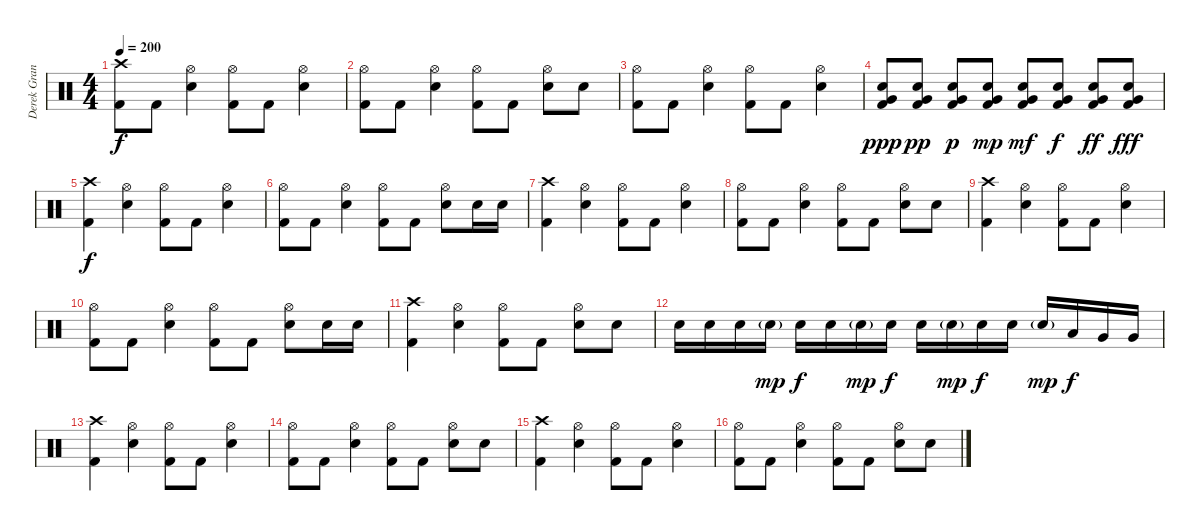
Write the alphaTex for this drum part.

\track ("Derek Grant" "Derek Gran") {instrument percussion}
\staff {score}
\articulation defaults
\ts (4 4)
\tempo 200
\clef neutral
\ks c
("Crash high (hit)" "Kick (hit) 2").8{dy f} "Kick (hit) 2".8 ("Hi-Hat (open)" "Electric Snare (hit)").4 ("Hi-Hat (open)" "Kick (hit) 2").8 "Kick (hit) 2".8 ("Hi-Hat (open)" "Electric Snare (hit)").4 |
("Hi-Hat (open)" "Kick (hit) 2").8 "Kick (hit) 2".8 ("Hi-Hat (open)" "Electric Snare (hit)").4 ("Hi-Hat (open)" "Kick (hit) 2").8 "Kick (hit) 2".8 ("Hi-Hat (open)" "Electric Snare (hit)").8 "Electric Snare (hit)".8 |
("Hi-Hat (open)" "Kick (hit) 2").8 "Kick (hit) 2".8 ("Hi-Hat (open)" "Electric Snare (hit)").4 ("Hi-Hat (open)" "Kick (hit) 2").8 "Kick (hit) 2".8 ("Hi-Hat (open)" "Electric Snare (hit)").4 |
("Very Low Tom (hit)" "Electric Snare (hit)" "Kick (hit) 2").8{dy ppp} ("Very Low Tom (hit)" "Electric Snare (hit)" "Kick (hit) 2").8{dy pp} ("Very Low Tom (hit)" "Electric Snare (hit)" "Kick (hit) 2").8{dy p} ("Very Low Tom (hit)" "Electric Snare (hit)" "Kick (hit) 2").8{dy mp} ("Very Low Tom (hit)" "Electric Snare (hit)" "Kick (hit) 2").8{dy mf} ("Very Low Tom (hit)" "Electric Snare (hit)" "Kick (hit) 2").8{dy f} ("Very Low Tom (hit)" "Electric Snare (hit)" "Kick (hit) 2").8{dy ff} ("Very Low Tom (hit)" "Electric Snare (hit)" "Kick (hit) 2").8{dy fff} |
("Crash high (hit)" "Kick (hit) 2").4{dy f} ("Hi-Hat (open)" "Electric Snare (hit)").4 ("Hi-Hat (open)" "Kick (hit) 2").8 "Kick (hit) 2".8 ("Hi-Hat (open)" "Electric Snare (hit)").4 |
("Hi-Hat (open)" "Kick (hit) 2").8 "Kick (hit) 2".8 ("Hi-Hat (open)" "Electric Snare (hit)").4 ("Hi-Hat (open)" "Kick (hit) 2").8 "Kick (hit) 2".8 ("Hi-Hat (open)" "Electric Snare (hit)").8 "Electric Snare (hit)".16 "Electric Snare (hit)".16 |
("Crash high (hit)" "Kick (hit) 2").4 ("Hi-Hat (open)" "Electric Snare (hit)").4 ("Hi-Hat (open)" "Kick (hit) 2").8 "Kick (hit) 2".8 ("Hi-Hat (open)" "Electric Snare (hit)").4 |
("Hi-Hat (open)" "Kick (hit) 2").8 "Kick (hit) 2".8 ("Hi-Hat (open)" "Electric Snare (hit)").4 ("Hi-Hat (open)" "Kick (hit) 2").8 "Kick (hit) 2".8 ("Hi-Hat (open)" "Electric Snare (hit)").8 "Electric Snare (hit)".8 |
("Crash high (hit)" "Kick (hit) 2").4 ("Hi-Hat (open)" "Electric Snare (hit)").4 ("Hi-Hat (open)" "Kick (hit) 2").8 "Kick (hit) 2".8 ("Hi-Hat (open)" "Electric Snare (hit)").4 |
("Hi-Hat (open)" "Kick (hit) 2").8 "Kick (hit) 2".8 ("Hi-Hat (open)" "Electric Snare (hit)").4 ("Hi-Hat (open)" "Kick (hit) 2").8 "Kick (hit) 2".8 ("Hi-Hat (open)" "Electric Snare (hit)").8 "Electric Snare (hit)".16 "Electric Snare (hit)".16 |
("Crash high (hit)" "Kick (hit) 2").4 ("Hi-Hat (open)" "Electric Snare (hit)").4 ("Hi-Hat (open)" "Kick (hit) 2").8 "Kick (hit) 2".8 ("Hi-Hat (open)" "Electric Snare (hit)").8 "Electric Snare (hit)".8 |
"Electric Snare (hit)".16 "Electric Snare (hit)".16 "Electric Snare (hit)".16 "Electric Snare (hit)"{g}.16{dy mp} "Electric Snare (hit)".16{dy f} "Electric Snare (hit)".16 "Electric Snare (hit)"{g}.16{dy mp} "Electric Snare (hit)".16{dy f} "Electric Snare (hit)".16 "Electric Snare (hit)"{g}.16{dy mp} "Electric Snare (hit)".16{dy f} "Electric Snare (hit)".16 "Electric Snare (hit)"{g}.16{dy mp} "Low Tom (hit)".16{dy f} "Very Low Tom (hit)".16 "Very Low Tom (hit)".16 |
("Crash high (hit)" "Kick (hit) 2").4 ("Hi-Hat (open)" "Electric Snare (hit)").4 ("Hi-Hat (open)" "Kick (hit) 2").8 "Kick (hit) 2".8 ("Hi-Hat (open)" "Electric Snare (hit)").4 |
("Hi-Hat (open)" "Kick (hit) 2").8 "Kick (hit) 2".8 ("Hi-Hat (open)" "Electric Snare (hit)").4 ("Hi-Hat (open)" "Kick (hit) 2").8 "Kick (hit) 2".8 ("Hi-Hat (open)" "Electric Snare (hit)").8 "Electric Snare (hit)".8 |
("Crash high (hit)" "Kick (hit) 2").4 ("Hi-Hat (open)" "Electric Snare (hit)").4 ("Hi-Hat (open)" "Kick (hit) 2").8 "Kick (hit) 2".8 ("Hi-Hat (open)" "Electric Snare (hit)").4 |
("Hi-Hat (open)" "Kick (hit) 2").8 "Kick (hit) 2".8 ("Hi-Hat (open)" "Electric Snare (hit)").4 ("Hi-Hat (open)" "Kick (hit) 2").8 "Kick (hit) 2".8 ("Hi-Hat (open)" "Electric Snare (hit)").8 "Electric Snare (hit)".8
